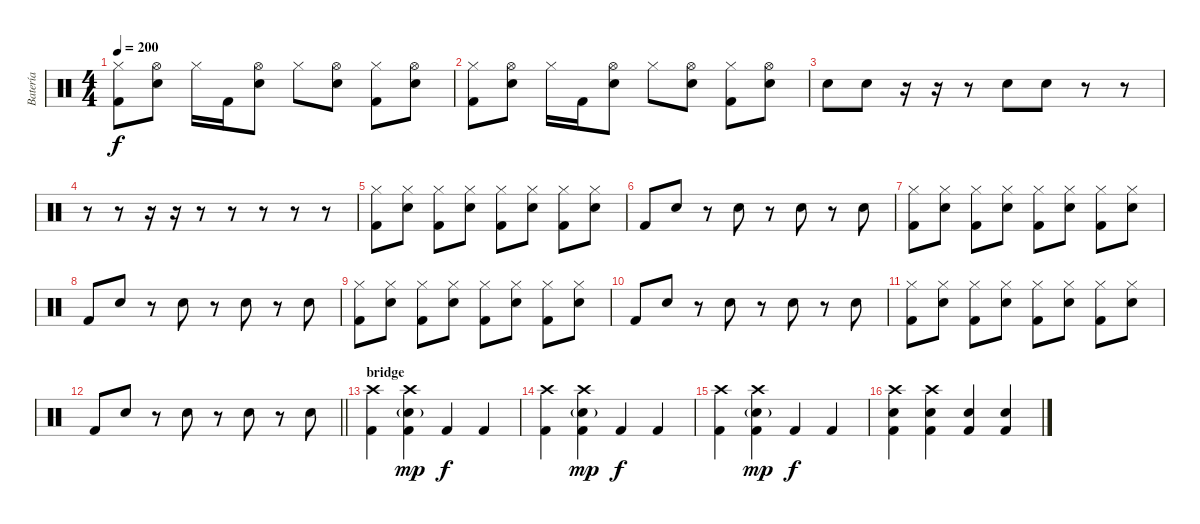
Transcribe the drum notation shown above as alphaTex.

\track ("Batería" "Batería") {instrument percussion}
\staff {score}
\articulation defaults
\ts (4 4)
\tempo 200
\clef neutral
\ks c
("Hi-Hat (closed)" "Kick (hit) 2").8{dy f} ("Hi-Hat (open)" "Snare (hit) 2").8 "Hi-Hat (closed)".16 "Kick (hit) 2".16 ("Hi-Hat (open)" "Snare (hit) 2").8 "Hi-Hat (closed)".8 ("Hi-Hat (open)" "Snare (hit) 2").8 ("Hi-Hat (closed)" "Kick (hit) 2").8 ("Hi-Hat (open)" "Snare (hit) 2").8 |
("Hi-Hat (closed)" "Kick (hit) 2").8 ("Hi-Hat (open)" "Snare (hit) 2").8 "Hi-Hat (closed)".16 "Kick (hit) 2".16 ("Hi-Hat (open)" "Snare (hit) 2").8 "Hi-Hat (closed)".8 ("Hi-Hat (open)" "Snare (hit) 2").8 ("Hi-Hat (closed)" "Kick (hit) 2").8 ("Hi-Hat (open)" "Snare (hit) 2").8 |
"Snare (hit) 2".8 "Snare (hit) 2".8 r.16 r.16 r.8 "Snare (hit) 2".8 "Snare (hit) 2".8 r.8 r.8 |
r.8 r.8 r.16 r.16 r.8 r.8 r.8 r.8 r.8 |
("Hi-Hat (closed)" "Kick (hit) 2").8 ("Hi-Hat (closed)" "Snare (hit) 2").8 ("Hi-Hat (closed)" "Kick (hit) 2").8 ("Hi-Hat (closed)" "Snare (hit) 2").8 ("Hi-Hat (closed)" "Kick (hit) 2").8 ("Hi-Hat (closed)" "Snare (hit) 2").8 ("Hi-Hat (closed)" "Kick (hit) 2").8 ("Hi-Hat (closed)" "Snare (hit) 2").8 |
"Kick (hit) 2".8 "Snare (hit) 2".8 r.8 "Snare (hit) 2".8 r.8 "Snare (hit) 2".8 r.8 "Snare (hit) 2".8 |
("Hi-Hat (closed)" "Kick (hit) 2").8 ("Hi-Hat (closed)" "Snare (hit) 2").8 ("Hi-Hat (closed)" "Kick (hit) 2").8 ("Hi-Hat (closed)" "Snare (hit) 2").8 ("Hi-Hat (closed)" "Kick (hit) 2").8 ("Hi-Hat (closed)" "Snare (hit) 2").8 ("Hi-Hat (closed)" "Kick (hit) 2").8 ("Hi-Hat (closed)" "Snare (hit) 2").8 |
"Kick (hit) 2".8 "Snare (hit) 2".8 r.8 "Snare (hit) 2".8 r.8 "Snare (hit) 2".8 r.8 "Snare (hit) 2".8 |
("Hi-Hat (closed)" "Kick (hit) 2").8 ("Hi-Hat (closed)" "Snare (hit) 2").8 ("Hi-Hat (closed)" "Kick (hit) 2").8 ("Hi-Hat (closed)" "Snare (hit) 2").8 ("Hi-Hat (closed)" "Kick (hit) 2").8 ("Hi-Hat (closed)" "Snare (hit) 2").8 ("Hi-Hat (closed)" "Kick (hit) 2").8 ("Hi-Hat (closed)" "Snare (hit) 2").8 |
"Kick (hit) 2".8 "Snare (hit) 2".8 r.8 "Snare (hit) 2".8 r.8 "Snare (hit) 2".8 r.8 "Snare (hit) 2".8 |
("Hi-Hat (closed)" "Kick (hit) 2").8 ("Hi-Hat (closed)" "Snare (hit) 2").8 ("Hi-Hat (closed)" "Kick (hit) 2").8 ("Hi-Hat (closed)" "Snare (hit) 2").8 ("Hi-Hat (closed)" "Kick (hit) 2").8 ("Hi-Hat (closed)" "Snare (hit) 2").8 ("Hi-Hat (closed)" "Kick (hit) 2").8 ("Hi-Hat (closed)" "Snare (hit) 2").8 |
\barLineRight lightlight "Kick (hit) 2".8 "Snare (hit) 2".8
r.8 "Snare (hit) 2".8 r.8 "Snare (hit) 2".8 r.8 "Snare (hit) 2".8 |
\section ("" "bridge")
("Crash high (hit)" "Kick (hit) 2").4 ("Crash high (hit)" "Snare (hit) 2"{g} "Kick (hit) 2").4{dy mp} "Kick (hit) 2".4{dy f} "Kick (hit) 2".4 |
("Crash high (hit)" "Kick (hit) 2").4 ("Crash high (hit)" "Snare (hit) 2"{g} "Kick (hit) 2").4{dy mp} "Kick (hit) 2".4{dy f} "Kick (hit) 2".4 |
("Crash high (hit)" "Kick (hit) 2").4 ("Crash high (hit)" "Snare (hit) 2"{g} "Kick (hit) 2").4{dy mp} "Kick (hit) 2".4{dy f} "Kick (hit) 2".4 |
("Crash high (hit)" "Snare (hit) 2" "Kick (hit) 2").4 ("Crash high (hit)" "Snare (hit) 2" "Kick (hit) 2").4 ("Snare (hit) 2" "Kick (hit) 2").4 ("Snare (hit) 2" "Kick (hit) 2").4
